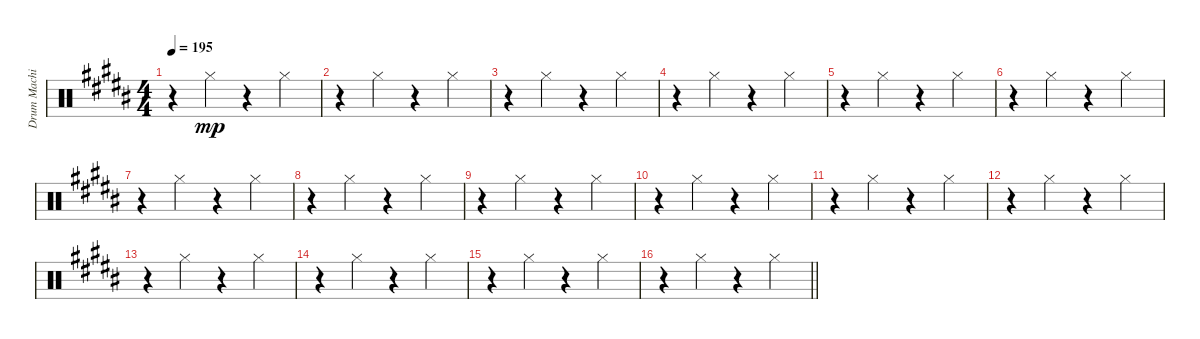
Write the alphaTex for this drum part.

\track ("Drum Machine" "Drum Machi") {instrument percussion}
\staff {score}
\articulation defaults
\ts (4 4)
\tempo 195
\clef neutral
\ks b
r.4{dy mp} "Hi-Hat (closed)".4 r.4 "Hi-Hat (closed)".4 |
r.4 "Hi-Hat (closed)".4 r.4 "Hi-Hat (closed)".4 |
r.4 "Hi-Hat (closed)".4 r.4 "Hi-Hat (closed)".4 |
r.4 "Hi-Hat (closed)".4 r.4 "Hi-Hat (closed)".4 |
r.4 "Hi-Hat (closed)".4 r.4 "Hi-Hat (closed)".4 |
r.4 "Hi-Hat (closed)".4 r.4 "Hi-Hat (closed)".4 |
r.4 "Hi-Hat (closed)".4 r.4 "Hi-Hat (closed)".4 |
r.4 "Hi-Hat (closed)".4 r.4 "Hi-Hat (closed)".4 |
r.4 "Hi-Hat (closed)".4 r.4 "Hi-Hat (closed)".4 |
r.4 "Hi-Hat (closed)".4 r.4 "Hi-Hat (closed)".4 |
r.4 "Hi-Hat (closed)".4 r.4 "Hi-Hat (closed)".4 |
r.4 "Hi-Hat (closed)".4 r.4 "Hi-Hat (closed)".4 |
r.4 "Hi-Hat (closed)".4 r.4 "Hi-Hat (closed)".4 |
r.4 "Hi-Hat (closed)".4 r.4 "Hi-Hat (closed)".4 |
r.4 "Hi-Hat (closed)".4 r.4 "Hi-Hat (closed)".4 |
\barLineRight lightlight
r.4 "Hi-Hat (closed)".4 r.4 "Hi-Hat (closed)".4
